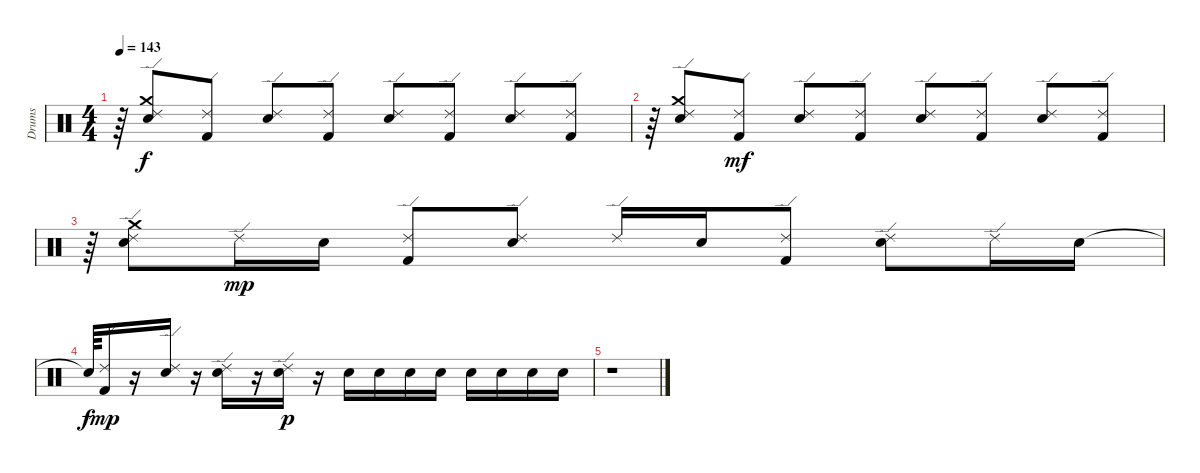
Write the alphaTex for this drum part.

\track ("Drums" "Drums") {instrument percussion}
\staff {score}
\articulation defaults
\ts (4 4)
\tempo 143
\clef neutral
\ks c
r.64{dy f} ("Electric Snare (hit)" "Crash medium (hit)" "Ride (edge) 2").8 ("Kick (hit) 2" "Ride (edge) 2").8 ("Ride (edge) 2" "Electric Snare (hit)").8 ("Ride (edge) 2" "Kick (hit) 2").8 ("Ride (edge) 2" "Electric Snare (hit)").8 ("Kick (hit) 2" "Ride (edge) 2").8 ("Electric Snare (hit)" "Ride (edge) 2").8 ("Kick (hit) 2" "Ride (edge) 2").8 |
r.64 ("Electric Snare (hit)" "Crash medium (hit)" "Ride (edge) 2").8 ("Kick (hit) 2" "Ride (edge) 2").8{dy mf} ("Ride (edge) 2" "Electric Snare (hit)").8 ("Ride (edge) 2" "Kick (hit) 2").8 ("Ride (edge) 2" "Electric Snare (hit)").8 ("Kick (hit) 2" "Ride (edge) 2").8 ("Electric Snare (hit)" "Ride (edge) 2").8 ("Kick (hit) 2" "Ride (edge) 2").8 |
r.64 ("Electric Snare (hit)" "Crash medium (hit)" "Ride (edge) 2").8 "Ride (edge) 2".16{dy mp} "Electric Snare (hit)".16 ("Ride (edge) 2" "Kick (hit) 2").8 ("Ride (edge) 2" "Electric Snare (hit)").8 "Ride (edge) 2".16 "Electric Snare (hit)".16 ("Kick (hit) 2" "Ride (edge) 2").8 ("Electric Snare (hit)" "Ride (edge) 2").8 "Ride (edge) 2".16 "Electric Snare (hit)".16 |
"Snare (hit)"{t}.64{dy f} ("Kick (hit) 2" "Ride (edge) 2").16{dy mp} r.16 ("Ride (edge) 2" "Electric Snare (hit)").16 r.16 ("Electric Snare (hit)" "Ride (edge) 2").16 r.16 ("Ride (edge) 2" "Electric Snare (hit)").16{dy p} r.16 "Electric Snare (hit)".16 "Electric Snare (hit)".16 "Electric Snare (hit)".16 "Electric Snare (hit)".16 "Electric Snare (hit)".16 "Electric Snare (hit)".16 "Electric Snare (hit)".16 "Electric Snare (hit)".16 |
r.1
